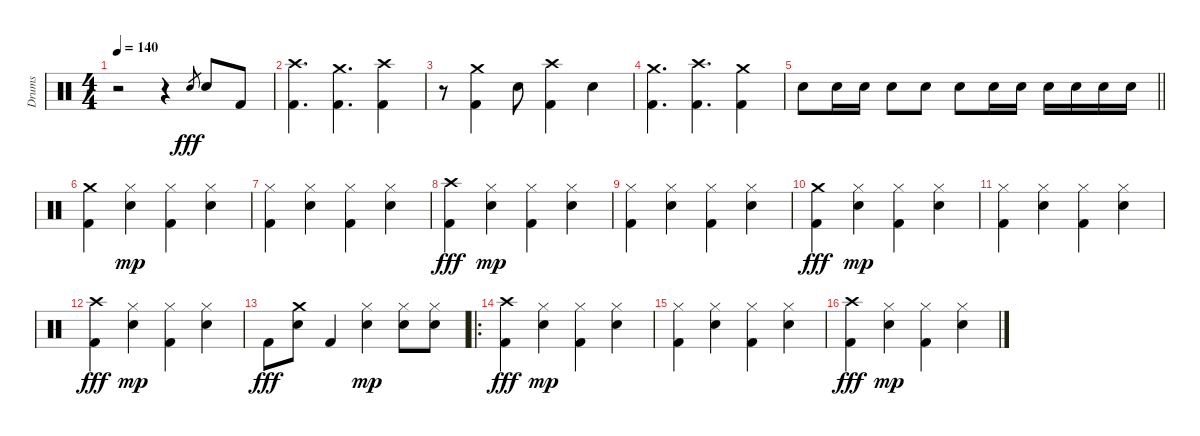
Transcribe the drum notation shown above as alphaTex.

\track ("Drums" "Drums") {instrument percussion}
\staff {score}
\articulation defaults
\ts (4 4)
\tempo 140
\clef neutral
\ks c
r.2{dy fff} r.4 "Electric Snare (hit)".8{gr} "Electric Snare (hit)".8 "Kick (hit) 2".8 |
("Kick (hit) 2" "Crash high (hit)").4{d} ("Kick (hit) 2" "Crash medium (hit)").4{d} ("Kick (hit) 2" "Crash high (hit)").4 |
r.8 ("Kick (hit) 2" "Crash medium (hit)").4 "Electric Snare (hit)".8 ("Kick (hit) 2" "Crash high (hit)").4 "Electric Snare (hit)".4 |
("Kick (hit) 2" "Crash medium (hit)").4{d} ("Kick (hit) 2" "Crash high (hit)").4{d} ("Kick (hit) 2" "Crash medium (hit)").4 |
\barLineRight lightlight "Electric Snare (hit)".8 "Electric Snare (hit)".16 "Electric Snare (hit)".16 "Electric Snare (hit)".8 "Electric Snare (hit)".8 "Electric Snare (hit)".8 "Electric Snare (hit)".16 "Electric Snare (hit)".16 "Electric Snare (hit)".16 "Electric Snare (hit)".16 "Electric Snare (hit)".16 "Electric Snare (hit)".16
|
("Kick (hit) 2" "Crash medium (hit)").4 ("Electric Snare (hit)" "Hi-Hat (closed)").4{dy mp} ("Kick (hit) 2" "Hi-Hat (closed)").4 ("Electric Snare (hit)" "Hi-Hat (closed)").4 |
("Kick (hit) 2" "Hi-Hat (closed)").4 ("Electric Snare (hit)" "Hi-Hat (closed)").4 ("Kick (hit) 2" "Hi-Hat (closed)").4 ("Electric Snare (hit)" "Hi-Hat (closed)").4 |
("Kick (hit) 2" "Crash high (hit)").4{dy fff} ("Electric Snare (hit)" "Hi-Hat (closed)").4{dy mp} ("Kick (hit) 2" "Hi-Hat (closed)").4 ("Electric Snare (hit)" "Hi-Hat (closed)").4 |
("Kick (hit) 2" "Hi-Hat (closed)").4 ("Electric Snare (hit)" "Hi-Hat (closed)").4 ("Kick (hit) 2" "Hi-Hat (closed)").4 ("Electric Snare (hit)" "Hi-Hat (closed)").4 |
("Kick (hit) 2" "Crash medium (hit)").4{dy fff} ("Electric Snare (hit)" "Hi-Hat (closed)").4{dy mp} ("Kick (hit) 2" "Hi-Hat (closed)").4 ("Electric Snare (hit)" "Hi-Hat (closed)").4 |
("Kick (hit) 2" "Hi-Hat (closed)").4 ("Electric Snare (hit)" "Hi-Hat (closed)").4 ("Kick (hit) 2" "Hi-Hat (closed)").4 ("Electric Snare (hit)" "Hi-Hat (closed)").4 |
("Kick (hit) 2" "Crash high (hit)").4{dy fff} ("Electric Snare (hit)" "Hi-Hat (closed)").4{dy mp} ("Kick (hit) 2" "Hi-Hat (closed)").4 ("Electric Snare (hit)" "Hi-Hat (closed)").4 |
"Kick (hit) 2".8{dy fff} ("Electric Snare (hit)" "Crash medium (hit)").8 "Kick (hit) 2".4 ("Electric Snare (hit)" "Hi-Hat (closed)").4{dy mp} ("Electric Snare (hit)" "Hi-Hat (closed)").8 ("Electric Snare (hit)" "Hi-Hat (closed)").8 |
\ro
("Kick (hit) 2" "Crash high (hit)").4{dy fff} ("Electric Snare (hit)" "Hi-Hat (closed)").4{dy mp} ("Kick (hit) 2" "Hi-Hat (closed)").4 ("Electric Snare (hit)" "Hi-Hat (closed)").4 |
("Kick (hit) 2" "Hi-Hat (closed)").4 ("Electric Snare (hit)" "Hi-Hat (closed)").4 ("Kick (hit) 2" "Hi-Hat (closed)").4 ("Electric Snare (hit)" "Hi-Hat (closed)").4 |
("Kick (hit) 2" "Crash high (hit)").4{dy fff} ("Electric Snare (hit)" "Hi-Hat (closed)").4{dy mp} ("Kick (hit) 2" "Hi-Hat (closed)").4 ("Electric Snare (hit)" "Hi-Hat (closed)").4
